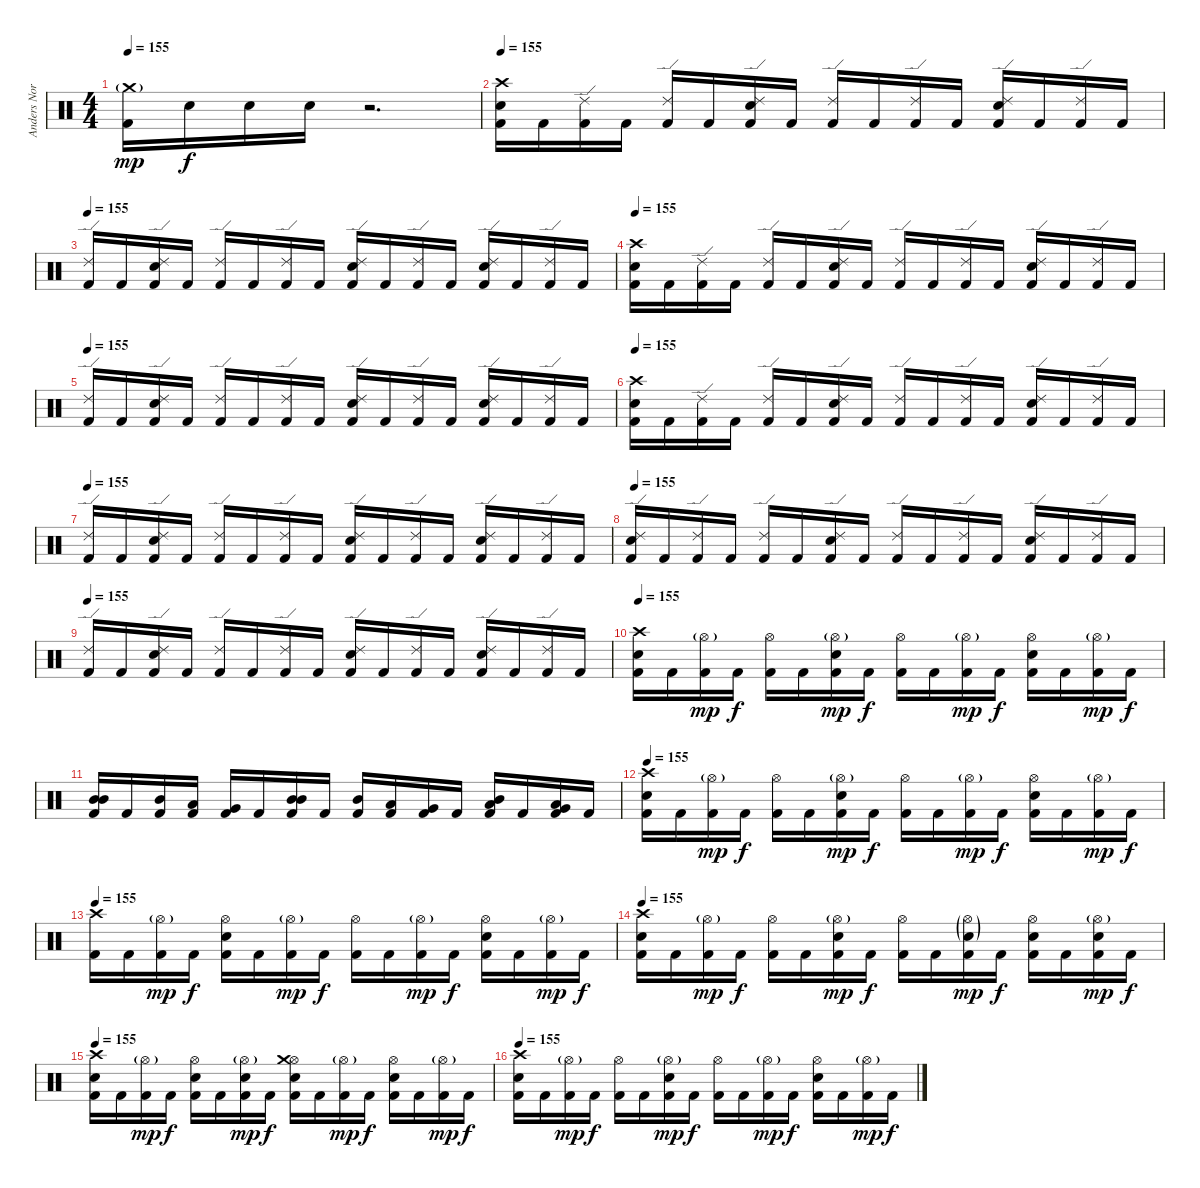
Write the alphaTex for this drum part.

\track ("Anders Nordin" "Anders Nor") {instrument percussion}
\staff {score}
\articulation defaults
\ts (4 4)
\tempo 155
\clef neutral
\ks c
("Kick (hit) 2" "Crash medium (hit)"{g}).16{dy mp} "Snare (hit)"{x}.16{dy f} "Snare (hit)"{x}.16 "Snare (hit)"{x}.16 r.2{d} |
\tempo 155
("Kick (hit) 2" "Electric Snare (hit)" "Crash high (hit)").16 "Kick (hit) 2".16 ("Kick (hit) 2" "Ride (edge) 2").16 "Kick (hit) 2".16 ("Kick (hit) 2" "Ride (edge) 2").16 "Kick (hit) 2".16 ("Kick (hit) 2" "Electric Snare (hit)" "Ride (edge) 2").16 "Kick (hit) 2".16 ("Kick (hit) 2" "Ride (edge) 2").16 "Kick (hit) 2".16 ("Kick (hit) 2" "Ride (edge) 2").16 "Kick (hit) 2".16 ("Kick (hit) 2" "Electric Snare (hit)" "Ride (edge) 2").16 "Kick (hit) 2".16 ("Kick (hit) 2" "Ride (edge) 2").16 "Kick (hit) 2".16 |
\tempo 155
("Kick (hit) 2" "Ride (edge) 2").16 "Kick (hit) 2".16 ("Kick (hit) 2" "Electric Snare (hit)" "Ride (edge) 2").16 "Kick (hit) 2".16 ("Kick (hit) 2" "Ride (edge) 2").16 "Kick (hit) 2".16 ("Kick (hit) 2" "Ride (edge) 2").16 "Kick (hit) 2".16 ("Kick (hit) 2" "Electric Snare (hit)" "Ride (edge) 2").16 "Kick (hit) 2".16 ("Kick (hit) 2" "Ride (edge) 2").16 "Kick (hit) 2".16 ("Kick (hit) 2" "Electric Snare (hit)" "Ride (edge) 2").16 "Kick (hit) 2".16 ("Kick (hit) 2" "Ride (edge) 2").16 "Kick (hit) 2".16 |
\tempo 155
("Kick (hit) 2" "Electric Snare (hit)" "Crash high (hit)").16 "Kick (hit) 2".16 ("Kick (hit) 2" "Ride (edge) 2").16 "Kick (hit) 2".16 ("Kick (hit) 2" "Ride (edge) 2").16 "Kick (hit) 2".16 ("Kick (hit) 2" "Electric Snare (hit)" "Ride (edge) 2").16 "Kick (hit) 2".16 ("Kick (hit) 2" "Ride (edge) 2").16 "Kick (hit) 2".16 ("Kick (hit) 2" "Ride (edge) 2").16 "Kick (hit) 2".16 ("Kick (hit) 2" "Electric Snare (hit)" "Ride (edge) 2").16 "Kick (hit) 2".16 ("Kick (hit) 2" "Ride (edge) 2").16 "Kick (hit) 2".16 |
\tempo 155
("Kick (hit) 2" "Ride (edge) 2").16 "Kick (hit) 2".16 ("Kick (hit) 2" "Electric Snare (hit)" "Ride (edge) 2").16 "Kick (hit) 2".16 ("Kick (hit) 2" "Ride (edge) 2").16 "Kick (hit) 2".16 ("Kick (hit) 2" "Ride (edge) 2").16 "Kick (hit) 2".16 ("Kick (hit) 2" "Electric Snare (hit)" "Ride (edge) 2").16 "Kick (hit) 2".16 ("Kick (hit) 2" "Ride (edge) 2").16 "Kick (hit) 2".16 ("Kick (hit) 2" "Electric Snare (hit)" "Ride (edge) 2").16 "Kick (hit) 2".16 ("Kick (hit) 2" "Ride (edge) 2").16 "Kick (hit) 2".16 |
\tempo 155
("Kick (hit) 2" "Electric Snare (hit)" "Crash high (hit)").16 "Kick (hit) 2".16 ("Kick (hit) 2" "Ride (edge) 2").16 "Kick (hit) 2".16 ("Kick (hit) 2" "Ride (edge) 2").16 "Kick (hit) 2".16 ("Kick (hit) 2" "Electric Snare (hit)" "Ride (edge) 2").16 "Kick (hit) 2".16 ("Kick (hit) 2" "Ride (edge) 2").16 "Kick (hit) 2".16 ("Kick (hit) 2" "Ride (edge) 2").16 "Kick (hit) 2".16 ("Kick (hit) 2" "Electric Snare (hit)" "Ride (edge) 2").16 "Kick (hit) 2".16 ("Kick (hit) 2" "Ride (edge) 2").16 "Kick (hit) 2".16 |
\tempo 155
("Kick (hit) 2" "Ride (edge) 2").16 "Kick (hit) 2".16 ("Kick (hit) 2" "Electric Snare (hit)" "Ride (edge) 2").16 "Kick (hit) 2".16 ("Kick (hit) 2" "Ride (edge) 2").16 "Kick (hit) 2".16 ("Kick (hit) 2" "Ride (edge) 2").16 "Kick (hit) 2".16 ("Kick (hit) 2" "Electric Snare (hit)" "Ride (edge) 2").16 "Kick (hit) 2".16 ("Kick (hit) 2" "Ride (edge) 2").16 "Kick (hit) 2".16 ("Kick (hit) 2" "Electric Snare (hit)" "Ride (edge) 2").16 "Kick (hit) 2".16 ("Kick (hit) 2" "Ride (edge) 2").16 "Kick (hit) 2".16 |
\tempo 155
("Kick (hit) 2" "Electric Snare (hit)" "Ride (edge) 2").16 "Kick (hit) 2".16 ("Kick (hit) 2" "Ride (edge) 2").16 "Kick (hit) 2".16 ("Kick (hit) 2" "Ride (edge) 2").16 "Kick (hit) 2".16 ("Kick (hit) 2" "Electric Snare (hit)" "Ride (edge) 2").16 "Kick (hit) 2".16 ("Kick (hit) 2" "Ride (edge) 2").16 "Kick (hit) 2".16 ("Kick (hit) 2" "Ride (edge) 2").16 "Kick (hit) 2".16 ("Kick (hit) 2" "Electric Snare (hit)" "Ride (edge) 2").16 "Kick (hit) 2".16 ("Kick (hit) 2" "Ride (edge) 2").16 "Kick (hit) 2".16 |
\tempo 155
("Kick (hit) 2" "Ride (edge) 2").16 "Kick (hit) 2".16 ("Kick (hit) 2" "Electric Snare (hit)" "Ride (edge) 2").16 "Kick (hit) 2".16 ("Kick (hit) 2" "Ride (edge) 2").16 "Kick (hit) 2".16 ("Kick (hit) 2" "Ride (edge) 2").16 "Kick (hit) 2".16 ("Kick (hit) 2" "Electric Snare (hit)" "Ride (edge) 2").16 "Kick (hit) 2".16 ("Kick (hit) 2" "Ride (edge) 2").16 "Kick (hit) 2".16 ("Kick (hit) 2" "Electric Snare (hit)" "Ride (edge) 2").16 "Kick (hit) 2".16 ("Kick (hit) 2" "Ride (edge) 2").16 "Kick (hit) 2".16 |
\tempo 155
("Kick (hit) 2" "Electric Snare (hit)" "Crash high (hit)").16 "Kick (hit) 2".16 ("Kick (hit) 2" "Hi-Hat (open)"{g}).16{dy mp} "Kick (hit) 2".16{dy f} ("Kick (hit) 2" "Hi-Hat (open)").16 "Kick (hit) 2".16 ("Kick (hit) 2" "Electric Snare (hit)" "Hi-Hat (open)"{g}).16{dy mp} "Kick (hit) 2".16{dy f} ("Kick (hit) 2" "Hi-Hat (open)").16 "Kick (hit) 2".16 ("Kick (hit) 2" "Hi-Hat (open)"{g}).16{dy mp} "Kick (hit) 2".16{dy f} ("Kick (hit) 2" "Electric Snare (hit)" "Hi-Hat (open)").16 "Kick (hit) 2".16 ("Kick (hit) 2" "Hi-Hat (open)"{g}).16{dy mp} "Kick (hit) 2".16{dy f} |
("Kick (hit) 2" "Mid Tom (hit)" "Mid Tom (hit)").16 "Kick (hit) 2".16 ("Kick (hit) 2" "Mid Tom (hit)").16 ("Kick (hit) 2" "Low Tom (hit)").16 ("Kick (hit) 2" "Very Low Tom (hit)").16 "Kick (hit) 2".16 ("Kick (hit) 2" "Mid Tom (hit)" "Mid Tom (hit)").16 "Kick (hit) 2".16 ("Kick (hit) 2" "Mid Tom (hit)").16 ("Kick (hit) 2" "Low Tom (hit)").16 ("Kick (hit) 2" "Very Low Tom (hit)").16 "Kick (hit) 2".16 ("Kick (hit) 2" "Low Tom (hit)" "Mid Tom (hit)").16 "Kick (hit) 2".16 ("Kick (hit) 2" "Low Tom (hit)" "Very Low Tom (hit)").16 "Kick (hit) 2".16 |
\tempo 155
("Kick (hit) 2" "Electric Snare (hit)" "Crash high (hit)").16 "Kick (hit) 2".16 ("Kick (hit) 2" "Hi-Hat (open)"{g}).16{dy mp} "Kick (hit) 2".16{dy f} ("Kick (hit) 2" "Hi-Hat (open)").16 "Kick (hit) 2".16 ("Kick (hit) 2" "Electric Snare (hit)" "Hi-Hat (open)"{g}).16{dy mp} "Kick (hit) 2".16{dy f} ("Kick (hit) 2" "Hi-Hat (open)").16 "Kick (hit) 2".16 ("Kick (hit) 2" "Hi-Hat (open)"{g}).16{dy mp} "Kick (hit) 2".16{dy f} ("Kick (hit) 2" "Electric Snare (hit)" "Hi-Hat (open)").16 "Kick (hit) 2".16 ("Kick (hit) 2" "Hi-Hat (open)"{g}).16{dy mp} "Kick (hit) 2".16{dy f} |
\tempo 155
("Kick (hit) 2" "Crash high (hit)").16 "Kick (hit) 2".16 ("Kick (hit) 2" "Hi-Hat (open)"{g}).16{dy mp} "Kick (hit) 2".16{dy f} ("Kick (hit) 2" "Electric Snare (hit)" "Hi-Hat (open)").16 "Kick (hit) 2".16 ("Kick (hit) 2" "Hi-Hat (open)"{g}).16{dy mp} "Kick (hit) 2".16{dy f} ("Kick (hit) 2" "Hi-Hat (open)").16 "Kick (hit) 2".16 ("Kick (hit) 2" "Hi-Hat (open)"{g}).16{dy mp} "Kick (hit) 2".16{dy f} ("Kick (hit) 2" "Electric Snare (hit)" "Hi-Hat (open)").16 "Kick (hit) 2".16 ("Kick (hit) 2" "Hi-Hat (open)"{g}).16{dy mp} "Kick (hit) 2".16{dy f} |
\tempo 155
("Kick (hit) 2" "Electric Snare (hit)" "Crash high (hit)").16 "Kick (hit) 2".16 ("Kick (hit) 2" "Hi-Hat (open)"{g}).16{dy mp} "Kick (hit) 2".16{dy f} ("Kick (hit) 2" "Hi-Hat (open)").16 "Kick (hit) 2".16 ("Kick (hit) 2" "Electric Snare (hit)" "Hi-Hat (open)"{g}).16{dy mp} "Kick (hit) 2".16{dy f} ("Kick (hit) 2" "Hi-Hat (open)").16 "Kick (hit) 2".16 ("Kick (hit) 2" "Electric Snare (hit)"{g} "Hi-Hat (open)"{g}).16{dy mp} "Kick (hit) 2".16{dy f} ("Kick (hit) 2" "Electric Snare (hit)" "Hi-Hat (open)").16 "Kick (hit) 2".16 ("Kick (hit) 2" "Electric Snare (hit)" "Hi-Hat (open)"{g}).16{dy mp} "Kick (hit) 2".16{dy f} |
\tempo 155
("Kick (hit) 2" "Electric Snare (hit)" "Crash high (hit)").16 "Kick (hit) 2".16 ("Kick (hit) 2" "Hi-Hat (open)"{g}).16{dy mp} "Kick (hit) 2".16{dy f} ("Kick (hit) 2" "Electric Snare (hit)" "Hi-Hat (open)").16 "Kick (hit) 2".16 ("Kick (hit) 2" "Electric Snare (hit)" "Hi-Hat (open)"{g}).16{dy mp} "Kick (hit) 2".16{dy f} ("Kick (hit) 2" "Electric Snare (hit)" "Hi-Hat (open)" "Crash medium (hit)").16 "Kick (hit) 2".16 ("Kick (hit) 2" "Hi-Hat (open)"{g}).16{dy mp} "Kick (hit) 2".16{dy f} ("Kick (hit) 2" "Electric Snare (hit)" "Hi-Hat (open)").16 "Kick (hit) 2".16 ("Kick (hit) 2" "Hi-Hat (open)"{g}).16{dy mp} "Kick (hit) 2".16{dy f} |
\tempo 155
("Kick (hit) 2" "Electric Snare (hit)" "Crash high (hit)").16 "Kick (hit) 2".16 ("Kick (hit) 2" "Hi-Hat (open)"{g}).16{dy mp} "Kick (hit) 2".16{dy f} ("Kick (hit) 2" "Hi-Hat (open)").16 "Kick (hit) 2".16 ("Kick (hit) 2" "Electric Snare (hit)" "Hi-Hat (open)"{g}).16{dy mp} "Kick (hit) 2".16{dy f} ("Kick (hit) 2" "Hi-Hat (open)").16 "Kick (hit) 2".16 ("Kick (hit) 2" "Hi-Hat (open)"{g}).16{dy mp} "Kick (hit) 2".16{dy f} ("Kick (hit) 2" "Electric Snare (hit)" "Hi-Hat (open)").16 "Kick (hit) 2".16 ("Kick (hit) 2" "Hi-Hat (open)"{g}).16{dy mp} "Kick (hit) 2".16{dy f}
